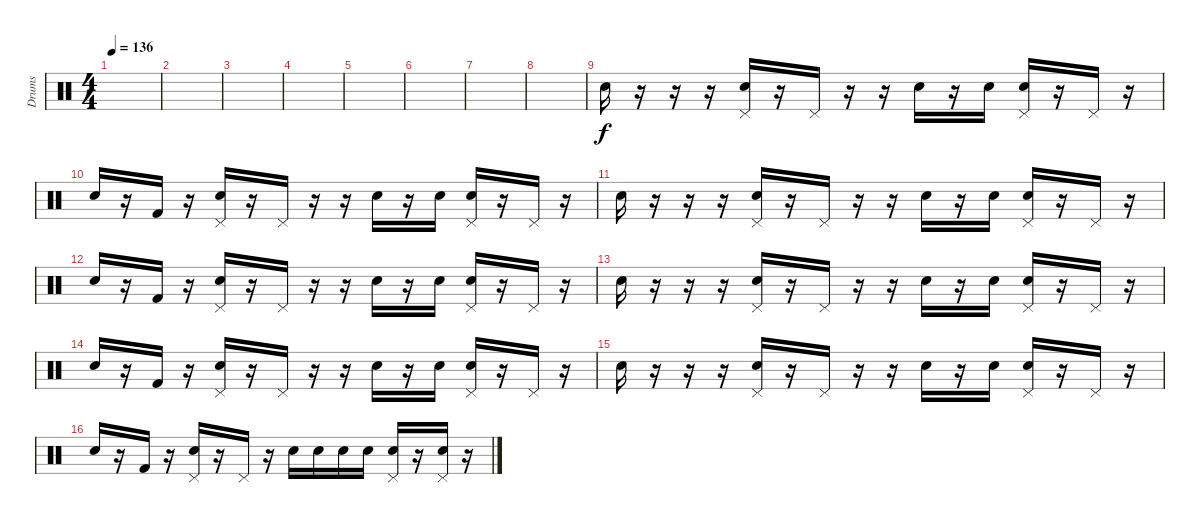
\track ("Drums" "Drums") {instrument percussion}
\staff {score}
\articulation defaults
\ts (4 4)
\tempo 136
\clef neutral
\ks c
|
|
|
|
|
|
|
|
"Electric Snare (hit)".16 r.16 r.16 r.16 ("Pedal Hi-Hat (hit)" "Electric Snare (hit)").16 r.16 "Pedal Hi-Hat (hit)".16 r.16 r.16 "Electric Snare (hit)".16 r.16 "Electric Snare (hit)".16 ("Pedal Hi-Hat (hit)" "Electric Snare (hit)").16 r.16 "Pedal Hi-Hat (hit)".16 r.16 |
"Electric Snare (hit)".16 r.16 "Kick (hit) 2".16 r.16 ("Pedal Hi-Hat (hit)" "Electric Snare (hit)").16 r.16 "Pedal Hi-Hat (hit)".16 r.16 r.16 "Electric Snare (hit)".16 r.16 "Electric Snare (hit)".16 ("Pedal Hi-Hat (hit)" "Electric Snare (hit)").16 r.16 "Pedal Hi-Hat (hit)".16 r.16 |
"Electric Snare (hit)".16 r.16 r.16 r.16 ("Pedal Hi-Hat (hit)" "Electric Snare (hit)").16 r.16 "Pedal Hi-Hat (hit)".16 r.16 r.16 "Electric Snare (hit)".16 r.16 "Electric Snare (hit)".16 ("Pedal Hi-Hat (hit)" "Electric Snare (hit)").16 r.16 "Pedal Hi-Hat (hit)".16 r.16 |
"Electric Snare (hit)".16 r.16 "Kick (hit) 2".16 r.16 ("Pedal Hi-Hat (hit)" "Electric Snare (hit)").16 r.16 "Pedal Hi-Hat (hit)".16 r.16 r.16 "Electric Snare (hit)".16 r.16 "Electric Snare (hit)".16 ("Pedal Hi-Hat (hit)" "Electric Snare (hit)").16 r.16 "Pedal Hi-Hat (hit)".16 r.16 |
"Electric Snare (hit)".16 r.16 r.16 r.16 ("Pedal Hi-Hat (hit)" "Electric Snare (hit)").16 r.16 "Pedal Hi-Hat (hit)".16 r.16 r.16 "Electric Snare (hit)".16 r.16 "Electric Snare (hit)".16 ("Pedal Hi-Hat (hit)" "Electric Snare (hit)").16 r.16 "Pedal Hi-Hat (hit)".16 r.16 |
"Electric Snare (hit)".16 r.16 "Kick (hit) 2".16 r.16 ("Pedal Hi-Hat (hit)" "Electric Snare (hit)").16 r.16 "Pedal Hi-Hat (hit)".16 r.16 r.16 "Electric Snare (hit)".16 r.16 "Electric Snare (hit)".16 ("Pedal Hi-Hat (hit)" "Electric Snare (hit)").16 r.16 "Pedal Hi-Hat (hit)".16 r.16 |
"Electric Snare (hit)".16 r.16 r.16 r.16 ("Pedal Hi-Hat (hit)" "Electric Snare (hit)").16 r.16 "Pedal Hi-Hat (hit)".16 r.16 r.16 "Electric Snare (hit)".16 r.16 "Electric Snare (hit)".16 ("Pedal Hi-Hat (hit)" "Electric Snare (hit)").16 r.16 "Pedal Hi-Hat (hit)".16 r.16 |
"Electric Snare (hit)".16 r.16 "Kick (hit) 2".16 r.16 ("Pedal Hi-Hat (hit)" "Electric Snare (hit)").16 r.16 "Pedal Hi-Hat (hit)".16 r.16 "Electric Snare (hit)".16 "Electric Snare (hit)".16 "Electric Snare (hit)".16 "Electric Snare (hit)".16 ("Pedal Hi-Hat (hit)" "Electric Snare (hit)").16 r.16 ("Pedal Hi-Hat (hit)" "Electric Snare (hit)").16 r.16
